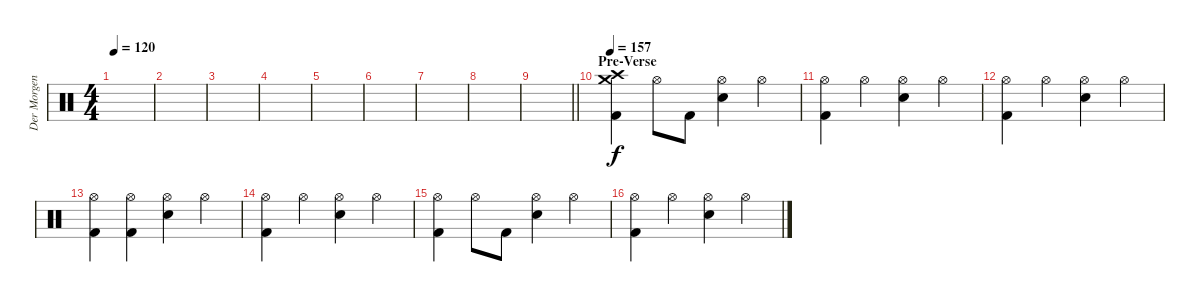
\track ("Der Morgenstern" "Der Morgen") {instrument percussion}
\staff {score}
\articulation defaults
\ts (4 4)
\tempo 120
\clef neutral
\ks c
|
|
|
|
|
|
|
|
\barLineRight lightlight
|
\section ("" "Pre-Verse")
\tempo 157
("Crash high (hit)" "Crash medium (hit)" "Kick (hit) 2").4 "Hi-Hat (open)".8 "Kick (hit) 2".8 ("Hi-Hat (open)" "Electric Snare (hit)").4 "Hi-Hat (open)".4 |
("Hi-Hat (open)" "Kick (hit) 2").4 "Hi-Hat (open)".4 ("Hi-Hat (open)" "Electric Snare (hit)").4 "Hi-Hat (open)".4 |
("Hi-Hat (open)" "Kick (hit) 2").4 "Hi-Hat (open)".4 ("Hi-Hat (open)" "Electric Snare (hit)").4 "Hi-Hat (open)".4 |
("Hi-Hat (open)" "Kick (hit) 2").4 ("Hi-Hat (open)" "Kick (hit) 2").4 ("Hi-Hat (open)" "Electric Snare (hit)").4 "Hi-Hat (open)".4 |
("Hi-Hat (open)" "Kick (hit) 2").4 "Hi-Hat (open)".4 ("Hi-Hat (open)" "Electric Snare (hit)").4 "Hi-Hat (open)".4 |
("Hi-Hat (open)" "Kick (hit) 2").4 "Hi-Hat (open)".8 "Kick (hit) 2".8 ("Hi-Hat (open)" "Electric Snare (hit)").4 "Hi-Hat (open)".4 |
("Hi-Hat (open)" "Kick (hit) 2").4 "Hi-Hat (open)".4 ("Hi-Hat (open)" "Electric Snare (hit)").4 "Hi-Hat (open)".4
